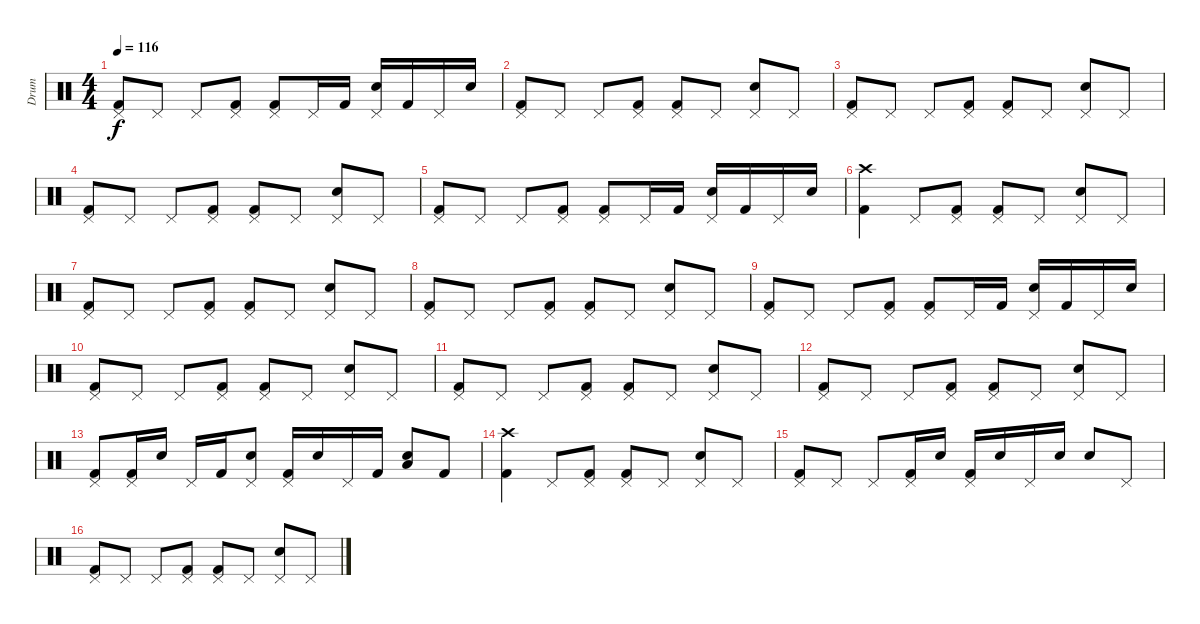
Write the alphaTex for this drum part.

\track ("Drum" "Drum") {instrument percussion}
\staff {score}
\articulation defaults
\ts (4 4)
\tempo 116
\clef neutral
\ks c
("Pedal Hi-Hat (hit)" "Kick (hit) 2").8{dy f} "Pedal Hi-Hat (hit)".8 "Pedal Hi-Hat (hit)".8 ("Pedal Hi-Hat (hit)" "Kick (hit) 2").8 ("Pedal Hi-Hat (hit)" "Kick (hit) 2").8 "Pedal Hi-Hat (hit)".16 "Kick (hit) 2".16 ("Pedal Hi-Hat (hit)" "Electric Snare (hit)").16 "Kick (hit) 2".16 "Pedal Hi-Hat (hit)".16 "Electric Snare (hit)".16 |
("Pedal Hi-Hat (hit)" "Kick (hit) 2").8 "Pedal Hi-Hat (hit)".8 "Pedal Hi-Hat (hit)".8 ("Pedal Hi-Hat (hit)" "Kick (hit) 2").8 ("Pedal Hi-Hat (hit)" "Kick (hit) 2").8 "Pedal Hi-Hat (hit)".8 ("Pedal Hi-Hat (hit)" "Electric Snare (hit)").8 "Pedal Hi-Hat (hit)".8 |
("Pedal Hi-Hat (hit)" "Kick (hit) 2").8 "Pedal Hi-Hat (hit)".8 "Pedal Hi-Hat (hit)".8 ("Pedal Hi-Hat (hit)" "Kick (hit) 2").8 ("Pedal Hi-Hat (hit)" "Kick (hit) 2").8 "Pedal Hi-Hat (hit)".8 ("Pedal Hi-Hat (hit)" "Electric Snare (hit)").8 "Pedal Hi-Hat (hit)".8 |
("Pedal Hi-Hat (hit)" "Kick (hit) 2").8 "Pedal Hi-Hat (hit)".8 "Pedal Hi-Hat (hit)".8 ("Pedal Hi-Hat (hit)" "Kick (hit) 2").8 ("Pedal Hi-Hat (hit)" "Kick (hit) 2").8 "Pedal Hi-Hat (hit)".8 ("Pedal Hi-Hat (hit)" "Electric Snare (hit)").8 "Pedal Hi-Hat (hit)".8 |
("Pedal Hi-Hat (hit)" "Kick (hit) 2").8 "Pedal Hi-Hat (hit)".8 "Pedal Hi-Hat (hit)".8 ("Pedal Hi-Hat (hit)" "Kick (hit) 2").8 ("Pedal Hi-Hat (hit)" "Kick (hit) 2").8 "Pedal Hi-Hat (hit)".16 "Kick (hit) 2".16 ("Pedal Hi-Hat (hit)" "Electric Snare (hit)").16 "Kick (hit) 2".16 "Pedal Hi-Hat (hit)".16 "Electric Snare (hit)".16 |
("Crash high (hit)" "Kick (hit) 2").4 "Pedal Hi-Hat (hit)".8 ("Pedal Hi-Hat (hit)" "Kick (hit) 2").8 ("Pedal Hi-Hat (hit)" "Kick (hit) 2").8 "Pedal Hi-Hat (hit)".8 ("Pedal Hi-Hat (hit)" "Electric Snare (hit)").8 "Pedal Hi-Hat (hit)".8 |
("Pedal Hi-Hat (hit)" "Kick (hit) 2").8 "Pedal Hi-Hat (hit)".8 "Pedal Hi-Hat (hit)".8 ("Pedal Hi-Hat (hit)" "Kick (hit) 2").8 ("Pedal Hi-Hat (hit)" "Kick (hit) 2").8 "Pedal Hi-Hat (hit)".8 ("Pedal Hi-Hat (hit)" "Electric Snare (hit)").8 "Pedal Hi-Hat (hit)".8 |
("Pedal Hi-Hat (hit)" "Kick (hit) 2").8 "Pedal Hi-Hat (hit)".8 "Pedal Hi-Hat (hit)".8 ("Pedal Hi-Hat (hit)" "Kick (hit) 2").8 ("Pedal Hi-Hat (hit)" "Kick (hit) 2").8 "Pedal Hi-Hat (hit)".8 ("Pedal Hi-Hat (hit)" "Electric Snare (hit)").8 "Pedal Hi-Hat (hit)".8 |
("Pedal Hi-Hat (hit)" "Kick (hit) 2").8 "Pedal Hi-Hat (hit)".8 "Pedal Hi-Hat (hit)".8 ("Pedal Hi-Hat (hit)" "Kick (hit) 2").8 ("Pedal Hi-Hat (hit)" "Kick (hit) 2").8 "Pedal Hi-Hat (hit)".16 "Kick (hit) 2".16 ("Pedal Hi-Hat (hit)" "Electric Snare (hit)").16 "Kick (hit) 2".16 "Pedal Hi-Hat (hit)".16 "Electric Snare (hit)".16 |
("Pedal Hi-Hat (hit)" "Kick (hit) 2").8 "Pedal Hi-Hat (hit)".8 "Pedal Hi-Hat (hit)".8 ("Pedal Hi-Hat (hit)" "Kick (hit) 2").8 ("Pedal Hi-Hat (hit)" "Kick (hit) 2").8 "Pedal Hi-Hat (hit)".8 ("Pedal Hi-Hat (hit)" "Electric Snare (hit)").8 "Pedal Hi-Hat (hit)".8 |
("Pedal Hi-Hat (hit)" "Kick (hit) 2").8 "Pedal Hi-Hat (hit)".8 "Pedal Hi-Hat (hit)".8 ("Pedal Hi-Hat (hit)" "Kick (hit) 2").8 ("Pedal Hi-Hat (hit)" "Kick (hit) 2").8 "Pedal Hi-Hat (hit)".8 ("Pedal Hi-Hat (hit)" "Electric Snare (hit)").8 "Pedal Hi-Hat (hit)".8 |
("Pedal Hi-Hat (hit)" "Kick (hit) 2").8 "Pedal Hi-Hat (hit)".8 "Pedal Hi-Hat (hit)".8 ("Pedal Hi-Hat (hit)" "Kick (hit) 2").8 ("Pedal Hi-Hat (hit)" "Kick (hit) 2").8 "Pedal Hi-Hat (hit)".8 ("Pedal Hi-Hat (hit)" "Electric Snare (hit)").8 "Pedal Hi-Hat (hit)".8 |
("Pedal Hi-Hat (hit)" "Kick (hit) 2").8 ("Pedal Hi-Hat (hit)" "Kick (hit) 2").16 "Electric Snare (hit)".16 "Pedal Hi-Hat (hit)".16 "Kick (hit) 2".16 ("Pedal Hi-Hat (hit)" "Electric Snare (hit)").8 ("Pedal Hi-Hat (hit)" "Kick (hit) 2").16 "Electric Snare (hit)".16 "Pedal Hi-Hat (hit)".16 "Kick (hit) 2".16 ("Low Tom (hit)" "Electric Snare (hit)").8 "Kick (hit) 2".8 |
("Crash high (hit)" "Kick (hit) 2").4 "Pedal Hi-Hat (hit)".8 ("Pedal Hi-Hat (hit)" "Kick (hit) 2").8 ("Pedal Hi-Hat (hit)" "Kick (hit) 2").8 "Pedal Hi-Hat (hit)".8 ("Pedal Hi-Hat (hit)" "Electric Snare (hit)").8 "Pedal Hi-Hat (hit)".8 |
("Pedal Hi-Hat (hit)" "Kick (hit) 2").8 "Pedal Hi-Hat (hit)".8 "Pedal Hi-Hat (hit)".8 ("Pedal Hi-Hat (hit)" "Kick (hit) 2").16 "Electric Snare (hit)".16 ("Pedal Hi-Hat (hit)" "Kick (hit) 2").16 "Electric Snare (hit)".16 "Pedal Hi-Hat (hit)".16 "Electric Snare (hit)".16 "Electric Snare (hit)".8 "Pedal Hi-Hat (hit)".8 |
("Pedal Hi-Hat (hit)" "Kick (hit) 2").8 "Pedal Hi-Hat (hit)".8 "Pedal Hi-Hat (hit)".8 ("Pedal Hi-Hat (hit)" "Kick (hit) 2").8 ("Pedal Hi-Hat (hit)" "Kick (hit) 2").8 "Pedal Hi-Hat (hit)".8 ("Pedal Hi-Hat (hit)" "Electric Snare (hit)").8 "Pedal Hi-Hat (hit)".8
